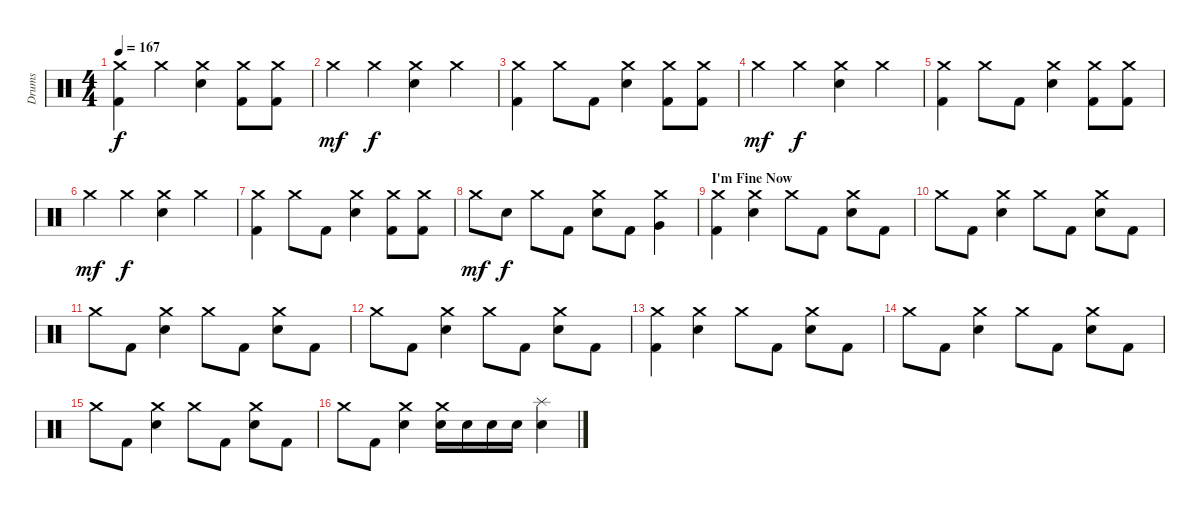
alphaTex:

\track ("Drums" "Drums") {instrument percussion}
\staff {score}
\articulation defaults
\ts (4 4)
\tempo 167
\clef neutral
\ks c
("Crash medium (hit)" "Kick (hit) 2").4{dy f} "Crash medium (hit)".4 ("Crash medium (hit)" "Electric Snare (hit)").4 ("Crash medium (hit)" "Kick (hit) 2").8 ("Crash medium (hit)" "Kick (hit) 2").8 |
"Crash medium (hit)".4{dy mf} "Crash medium (hit)".4{dy f} ("Crash medium (hit)" "Electric Snare (hit)").4 "Crash medium (hit)".4 |
("Crash medium (hit)" "Kick (hit) 2").4 "Crash medium (hit)".8 "Kick (hit) 2".8 ("Crash medium (hit)" "Electric Snare (hit)").4 ("Crash medium (hit)" "Kick (hit) 2").8 ("Crash medium (hit)" "Kick (hit) 2").8 |
"Crash medium (hit)".4{dy mf} "Crash medium (hit)".4{dy f} ("Crash medium (hit)" "Electric Snare (hit)").4 "Crash medium (hit)".4 |
("Crash medium (hit)" "Kick (hit) 2").4 "Crash medium (hit)".8 "Kick (hit) 2".8 ("Crash medium (hit)" "Electric Snare (hit)").4 ("Crash medium (hit)" "Kick (hit) 2").8 ("Crash medium (hit)" "Kick (hit) 2").8 |
"Crash medium (hit)".4{dy mf} "Crash medium (hit)".4{dy f} ("Crash medium (hit)" "Electric Snare (hit)").4 "Crash medium (hit)".4 |
("Crash medium (hit)" "Kick (hit) 2").4 "Crash medium (hit)".8 "Kick (hit) 2".8 ("Crash medium (hit)" "Electric Snare (hit)").4 ("Crash medium (hit)" "Kick (hit) 2").8 ("Crash medium (hit)" "Kick (hit) 2").8 |
"Crash medium (hit)".8{dy mf} "Electric Snare (hit)".8{dy f} "Crash medium (hit)".8 "Kick (hit) 2".8 ("Crash medium (hit)" "Electric Snare (hit)").8 "Kick (hit) 2".8 ("Crash medium (hit)" "Very Low Tom (hit)").4 |
\section ("" "I'm Fine Now")
("Crash medium (hit)" "Kick (hit) 2").4 ("Crash medium (hit)" "Electric Snare (hit)").4 "Crash medium (hit)".8 "Kick (hit) 2".8 ("Crash medium (hit)" "Electric Snare (hit)").8 "Kick (hit) 2".8 |
"Crash medium (hit)".8 "Kick (hit) 2".8 ("Crash medium (hit)" "Electric Snare (hit)").4 "Crash medium (hit)".8 "Kick (hit) 2".8 ("Crash medium (hit)" "Electric Snare (hit)").8 "Kick (hit) 2".8 |
"Crash medium (hit)".8 "Kick (hit) 2".8 ("Crash medium (hit)" "Electric Snare (hit)").4 "Crash medium (hit)".8 "Kick (hit) 2".8 ("Crash medium (hit)" "Electric Snare (hit)").8 "Kick (hit) 2".8 |
"Crash medium (hit)".8 "Kick (hit) 2".8 ("Crash medium (hit)" "Electric Snare (hit)").4 "Crash medium (hit)".8 "Kick (hit) 2".8 ("Crash medium (hit)" "Electric Snare (hit)").8 "Kick (hit) 2".8 |
("Crash medium (hit)" "Kick (hit) 2").4 ("Crash medium (hit)" "Electric Snare (hit)").4 "Crash medium (hit)".8 "Kick (hit) 2".8 ("Crash medium (hit)" "Electric Snare (hit)").8 "Kick (hit) 2".8 |
"Crash medium (hit)".8 "Kick (hit) 2".8 ("Crash medium (hit)" "Electric Snare (hit)").4 "Crash medium (hit)".8 "Kick (hit) 2".8 ("Crash medium (hit)" "Electric Snare (hit)").8 "Kick (hit) 2".8 |
"Crash medium (hit)".8 "Kick (hit) 2".8 ("Crash medium (hit)" "Electric Snare (hit)").4 "Crash medium (hit)".8 "Kick (hit) 2".8 ("Crash medium (hit)" "Electric Snare (hit)").8 "Kick (hit) 2".8 |
"Crash medium (hit)".8 "Kick (hit) 2".8 ("Crash medium (hit)" "Electric Snare (hit)").4 ("Crash medium (hit)" "Electric Snare (hit)").16 "Electric Snare (hit)".16 "Electric Snare (hit)".16 "Electric Snare (hit)".16 ("Splash (hit)" "Electric Snare (hit)").4
